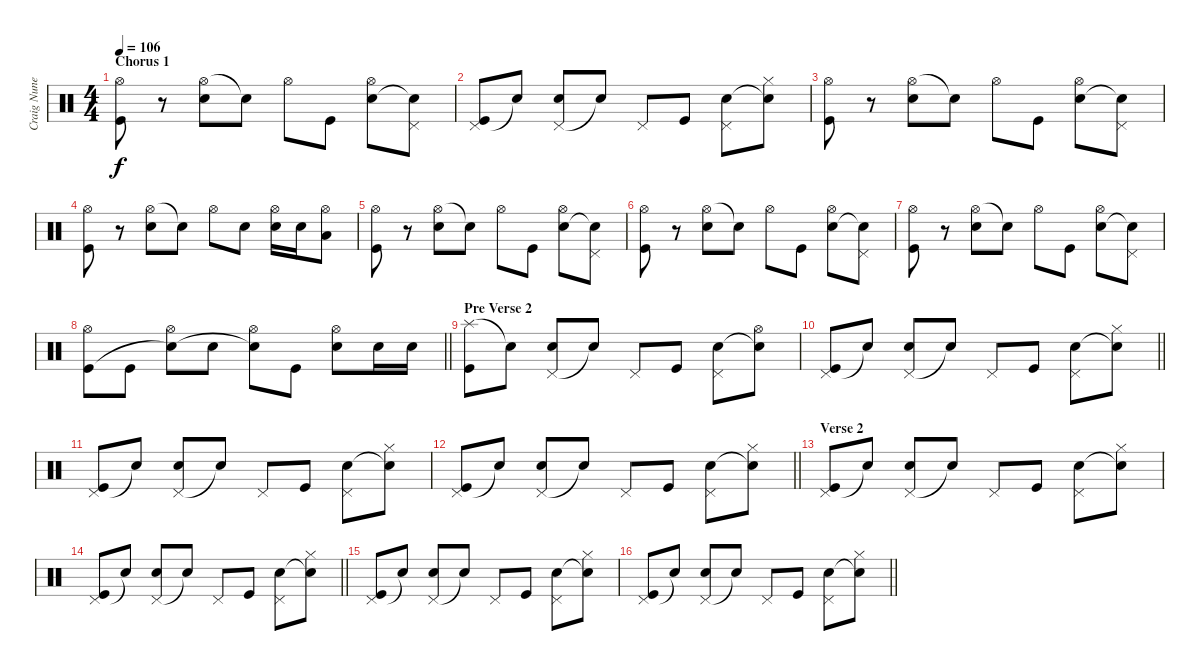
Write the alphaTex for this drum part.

\track ("Craig Nunenmacher (Drums)" "Craig Nune") {instrument percussion}
\staff {score}
\articulation defaults
\ts (4 4)
\section ("" "Chorus 1")
\tempo 106
\clef neutral
\ks c
("Hi-Hat (open)" "Kick (hit)").8{dy f} r.8 ("Hi-Hat (open)" "Electric Snare (hit)").8 "Snare (hit)"{t}.8 "Hi-Hat (open)".8 "Kick (hit)".8 ("Hi-Hat (open)" "Electric Snare (hit)").8 ("Pedal Hi-Hat (hit)" "Snare (hit)"{t}).8 |
("Pedal Hi-Hat (hit)" "Kick (hit)").8 "Snare (hit)"{t}.8 ("Pedal Hi-Hat (hit)" "Electric Snare (hit)").8 "Snare (hit)"{t}.8 "Pedal Hi-Hat (hit)".8 "Kick (hit)".8 ("Pedal Hi-Hat (hit)" "Electric Snare (hit)").8 ("Hi-Hat (closed)" "Snare (hit)"{t}).8 |
("Hi-Hat (open)" "Kick (hit)").8 r.8 ("Hi-Hat (open)" "Electric Snare (hit)").8 "Snare (hit)"{t}.8 "Hi-Hat (open)".8 "Kick (hit)".8 ("Hi-Hat (open)" "Electric Snare (hit)").8 ("Pedal Hi-Hat (hit)" "Snare (hit)"{t}).8 |
("Hi-Hat (open)" "Kick (hit)").8 r.8 ("Hi-Hat (open)" "Electric Snare (hit)").8 "Snare (hit)"{t}.8 "Hi-Hat (open)".8 "Electric Snare (hit)".8 ("Hi-Hat (open)" "Electric Snare (hit)").16 "Electric Snare (hit)".16 ("Hi-Hat (open)" "Low Floor Tom (hit)").8 |
("Hi-Hat (open)" "Kick (hit)").8 r.8 ("Hi-Hat (open)" "Electric Snare (hit)").8 "Snare (hit)"{t}.8 "Hi-Hat (open)".8 "Kick (hit)".8 ("Hi-Hat (open)" "Electric Snare (hit)").8 ("Pedal Hi-Hat (hit)" "Snare (hit)"{t}).8 |
("Hi-Hat (open)" "Kick (hit)").8 r.8 ("Hi-Hat (open)" "Electric Snare (hit)").8 "Snare (hit)"{t}.8 "Hi-Hat (open)".8 "Kick (hit)".8 ("Hi-Hat (open)" "Electric Snare (hit)").8 ("Pedal Hi-Hat (hit)" "Snare (hit)"{t}).8 |
("Hi-Hat (open)" "Kick (hit)").8 r.8 ("Hi-Hat (open)" "Electric Snare (hit)").8 "Snare (hit)"{t}.8 "Hi-Hat (open)".8 "Kick (hit)".8 ("Hi-Hat (open)" "Electric Snare (hit)").8 ("Pedal Hi-Hat (hit)" "Snare (hit)"{t}).8 |
\barLineRight lightlight
("Hi-Hat (open)" "Kick (hit)").8 "Kick (hit)".8 ("Hi-Hat (open)" "Snare (hit)"{t}).8 "Electric Snare (hit)".8 ("Hi-Hat (open)" "Snare (hit)"{t}).8 "Kick (hit)".8 ("Hi-Hat (open)" "Electric Snare (hit)").8 "Electric Snare (hit)".16 "Electric Snare (hit)".16 |
\section ("" "Pre Verse 2")
("Splash (hit)" "Kick (hit)").8 "Snare (hit)"{t}.8 ("Pedal Hi-Hat (hit)" "Electric Snare (hit)").8 "Snare (hit)"{t}.8 "Pedal Hi-Hat (hit)".8 "Kick (hit)".8 ("Pedal Hi-Hat (hit)" "Electric Snare (hit)").8 ("Hi-Hat (open)" "Snare (hit)"{t}).8 |
\barLineRight lightlight
("Pedal Hi-Hat (hit)" "Kick (hit)").8 "Snare (hit)"{t}.8 ("Pedal Hi-Hat (hit)" "Electric Snare (hit)").8 "Snare (hit)"{t}.8 "Pedal Hi-Hat (hit)".8 "Kick (hit)".8 ("Pedal Hi-Hat (hit)" "Electric Snare (hit)").8 ("Hi-Hat (closed)" "Snare (hit)"{t}).8 |
("Pedal Hi-Hat (hit)" "Kick (hit)").8 "Snare (hit)"{t}.8 ("Pedal Hi-Hat (hit)" "Electric Snare (hit)").8 "Snare (hit)"{t}.8 "Pedal Hi-Hat (hit)".8 "Kick (hit)".8 ("Pedal Hi-Hat (hit)" "Electric Snare (hit)").8 ("Hi-Hat (closed)" "Snare (hit)"{t}).8 |
\barLineRight lightlight
("Pedal Hi-Hat (hit)" "Kick (hit)").8 "Snare (hit)"{t}.8 ("Pedal Hi-Hat (hit)" "Electric Snare (hit)").8 "Snare (hit)"{t}.8 "Pedal Hi-Hat (hit)".8 "Kick (hit)".8 ("Pedal Hi-Hat (hit)" "Electric Snare (hit)").8 ("Hi-Hat (closed)" "Snare (hit)"{t}).8 |
\section ("" "Verse 2")
("Pedal Hi-Hat (hit)" "Kick (hit)").8 "Snare (hit)"{t}.8 ("Pedal Hi-Hat (hit)" "Electric Snare (hit)").8 "Snare (hit)"{t}.8 "Pedal Hi-Hat (hit)".8 "Kick (hit)".8 ("Pedal Hi-Hat (hit)" "Electric Snare (hit)").8 ("Hi-Hat (closed)" "Snare (hit)"{t}).8 |
\barLineRight lightlight
("Pedal Hi-Hat (hit)" "Kick (hit)").8 "Snare (hit)"{t}.8 ("Pedal Hi-Hat (hit)" "Electric Snare (hit)").8 "Snare (hit)"{t}.8 "Pedal Hi-Hat (hit)".8 "Kick (hit)".8 ("Pedal Hi-Hat (hit)" "Electric Snare (hit)").8 ("Hi-Hat (closed)" "Snare (hit)"{t}).8 |
("Pedal Hi-Hat (hit)" "Kick (hit)").8 "Snare (hit)"{t}.8 ("Pedal Hi-Hat (hit)" "Electric Snare (hit)").8 "Snare (hit)"{t}.8 "Pedal Hi-Hat (hit)".8 "Kick (hit)".8 ("Pedal Hi-Hat (hit)" "Electric Snare (hit)").8 ("Hi-Hat (closed)" "Snare (hit)"{t}).8 |
\barLineRight lightlight
("Pedal Hi-Hat (hit)" "Kick (hit)").8 "Snare (hit)"{t}.8 ("Pedal Hi-Hat (hit)" "Electric Snare (hit)").8 "Snare (hit)"{t}.8 "Pedal Hi-Hat (hit)".8 "Kick (hit)".8 ("Pedal Hi-Hat (hit)" "Electric Snare (hit)").8 ("Hi-Hat (closed)" "Snare (hit)"{t}).8
